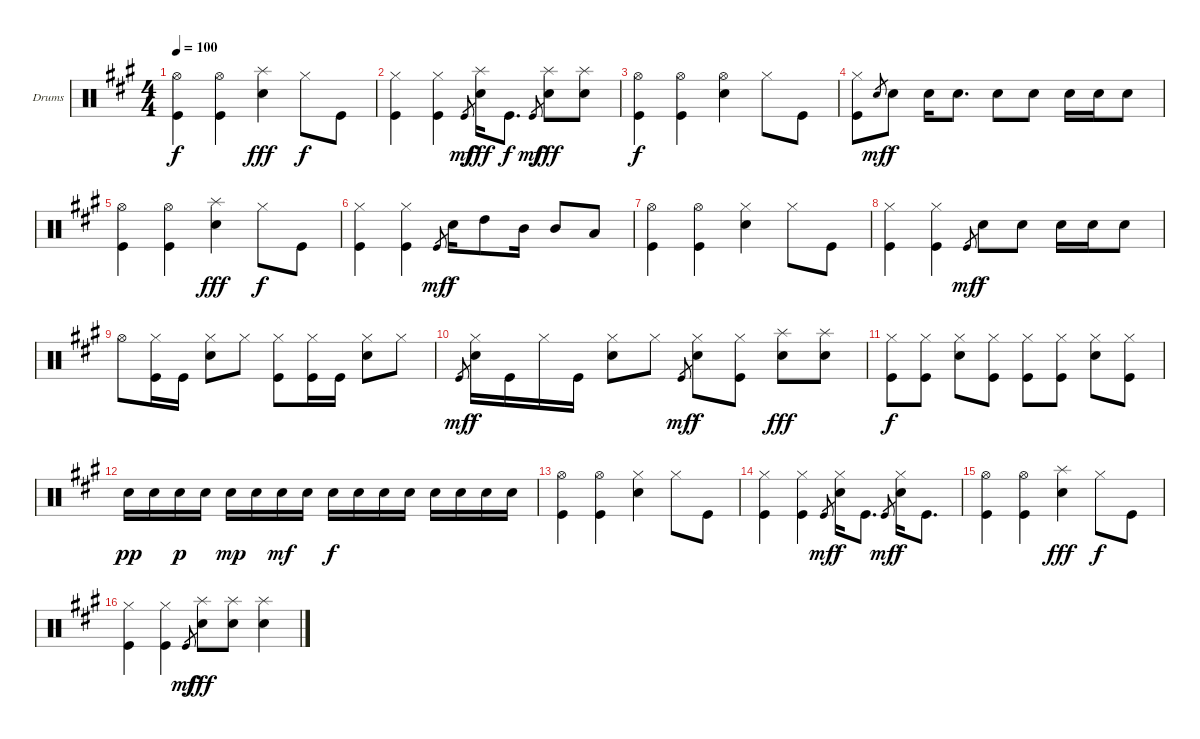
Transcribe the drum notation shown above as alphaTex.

\bracketExtendMode groupsimilarinstruments
\firstSystemTrackNameOrientation horizontal
\otherSystemsTrackNameOrientation horizontal
\track ("Drumkit" "Drums") {instrument percussion}
\staff {score}
\articulation defaults
\ts (4 4)
\tempo 100
\clef neutral
\scale
1.05801
\ks a
("Hi-Hat (open)" "Kick (hit)").4{dy f} ("Hi-Hat (open)" "Kick (hit)").4 ("Splash (hit)" "Snare (hit) 2").4{dy fff} "Hi-Hat (closed)".8{dy f} "Kick (hit)".8 |
\scale
0.941992 ("Hi-Hat (closed)" "Kick (hit)").4 ("Hi-Hat (closed)" "Kick (hit)").4 "Kick (hit)".8{gr dy mf} ("Splash (hit)" "Snare (hit) 2").16{dy fff} "Kick (hit)".8{d dy f} "Kick (hit)".8{gr dy mf} ("Splash (hit)" "Snare (hit) 2").8{dy fff} ("Splash (hit)" "Snare (hit) 2").8 |
\scale
1.05801 ("Hi-Hat (open)" "Kick (hit)").4{dy f} ("Hi-Hat (open)" "Kick (hit)").4 ("Hi-Hat (open)" "Snare (hit) 2").4 "Hi-Hat (closed)".8 "Kick (hit)".8 |
\scale
0.941992 ("Hi-Hat (closed)" "Kick (hit)").8 "Snare (hit) 2".8{gr dy mf} "Snare (hit) 2".8{dy f} "Snare (hit) 2".16 "Snare (hit) 2".8{d} "Snare (hit) 2".8 "Snare (hit) 2".8 "Snare (hit) 2".16 "Snare (hit) 2".16 "Snare (hit) 2".8 |
\scale
1.05801 ("Hi-Hat (open)" "Kick (hit)").4 ("Hi-Hat (open)" "Kick (hit)").4 ("Splash (hit)" "Snare (hit) 2").4{dy fff} "Hi-Hat (closed)".8{dy f} "Kick (hit)".8 |
\scale
0.941992 ("Hi-Hat (closed)" "Kick (hit)").4 ("Hi-Hat (closed)" "Kick (hit)").4 "Kick (hit)".8{gr dy mf} "Snare (hit) 2".16{dy f} "High Tom (hit)".8 "Mid Tom (hit)".16 "Mid Tom (hit)".8 "Low Tom (hit)".8 |
\scale
1.05801 ("Hi-Hat (open)" "Kick (hit)").4 ("Hi-Hat (open)" "Kick (hit)").4 ("Hi-Hat (closed)" "Snare (hit) 2").4 "Hi-Hat (closed)".8 "Kick (hit)".8 |
\scale
0.941992 ("Hi-Hat (closed)" "Kick (hit)").4 ("Hi-Hat (closed)" "Kick (hit)").4 "Kick (hit)".8{gr dy mf} "Snare (hit) 2".8{dy f} "Snare (hit) 2".8 "Snare (hit) 2".16 "Snare (hit) 2".16 "Snare (hit) 2".8 |
\scale
1.05801 "Hi-Hat (open)".8 ("Hi-Hat (closed)" "Kick (hit)").16 "Kick (hit)".16 ("Hi-Hat (closed)" "Snare (hit) 2").8 "Hi-Hat (closed)".8 ("Hi-Hat (closed)" "Kick (hit)").8 ("Hi-Hat (closed)" "Kick (hit)").16 "Kick (hit)".16 ("Hi-Hat (closed)" "Snare (hit) 2").8 "Hi-Hat (closed)".8 |
\scale
0.941992 "Kick (hit)".8{gr dy mf} ("Hi-Hat (closed)" "Snare (hit) 2").16{dy f} "Kick (hit)".16 "Hi-Hat (closed)".16 "Kick (hit)".16 ("Hi-Hat (closed)" "Snare (hit) 2").8 "Hi-Hat (closed)".8 "Kick (hit)".8{gr dy mf} ("Hi-Hat (closed)" "Snare (hit) 2").8{dy f} ("Hi-Hat (closed)" "Kick (hit)").8 ("Splash (hit)" "Snare (hit) 2").8{dy fff} ("Splash (hit)" "Snare (hit) 2").8 |
\scale
1.05801 ("Hi-Hat (closed)" "Kick (hit)").8{dy f} ("Hi-Hat (closed)" "Kick (hit)").8 ("Hi-Hat (closed)" "Snare (hit) 2").8 ("Hi-Hat (closed)" "Kick (hit)").8 ("Hi-Hat (closed)" "Kick (hit)").8 ("Hi-Hat (closed)" "Kick (hit)").8 ("Hi-Hat (closed)" "Snare (hit) 2").8 ("Hi-Hat (closed)" "Kick (hit)").8 |
\scale
0.941992 "Snare (hit) 2".16{dy pp} "Snare (hit) 2".16 "Snare (hit) 2".16{dy p} "Snare (hit) 2".16 "Snare (hit) 2".16{dy mp} "Snare (hit) 2".16 "Snare (hit) 2".16{dy mf} "Snare (hit) 2".16 "Snare (hit) 2".16{dy f} "Snare (hit) 2".16 "Snare (hit) 2".16 "Snare (hit) 2".16 "Snare (hit) 2".16 "Snare (hit) 2".16 "Snare (hit) 2".16 "Snare (hit) 2".16 |
\scale
1.05801 ("Hi-Hat (open)" "Kick (hit)").4 ("Hi-Hat (open)" "Kick (hit)").4 ("Hi-Hat (closed)" "Snare (hit) 2").4 "Hi-Hat (closed)".8 "Kick (hit)".8 |
\scale
0.941992 ("Hi-Hat (closed)" "Kick (hit)").4 ("Hi-Hat (closed)" "Kick (hit)").4 "Kick (hit)".8{gr dy mf} ("Hi-Hat (closed)" "Snare (hit) 2").16{dy f} "Kick (hit)".8{d} "Kick (hit)".8{gr dy mf} ("Hi-Hat (closed)" "Snare (hit) 2").16{dy f} "Kick (hit)".8{d} |
\scale
1.05801 ("Hi-Hat (open)" "Kick (hit)").4 ("Hi-Hat (open)" "Kick (hit)").4 ("Splash (hit)" "Snare (hit) 2").4{dy fff} "Hi-Hat (closed)".8{dy f} "Kick (hit)".8 |
\scale
0.941992 ("Hi-Hat (closed)" "Kick (hit)").4 ("Hi-Hat (closed)" "Kick (hit)").4 "Kick (hit)".8{gr dy mf} ("Splash (hit)" "Snare (hit) 2").8{dy fff} ("Splash (hit)" "Snare (hit) 2").8 ("Splash (hit)" "Snare (hit) 2").4
